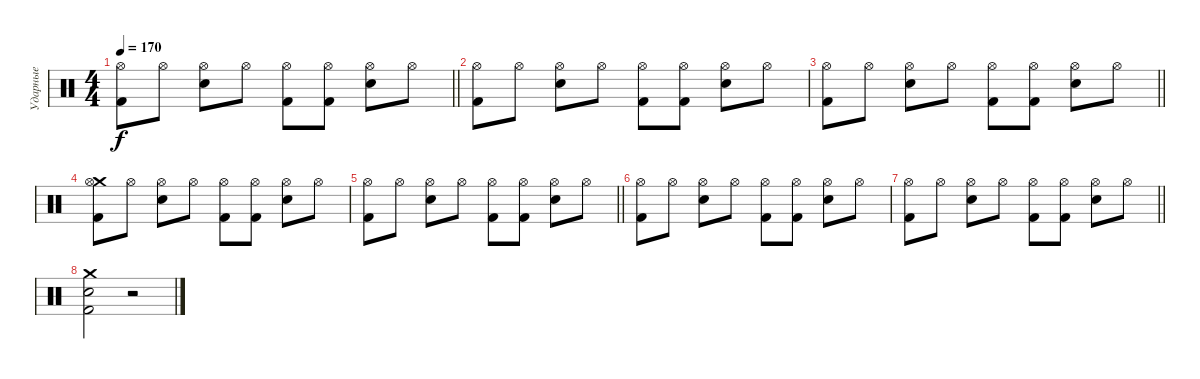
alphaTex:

\track ("Ударные" "Ударные") {instrument percussion}
\staff {score}
\articulation defaults
\ts (4 4)
\tempo 170
\clef neutral
\barLineRight lightlight
\ks c
("Hi-Hat (open)" "Kick (hit) 2").8{dy f} "Hi-Hat (open)".8 ("Hi-Hat (open)" "Electric Snare (hit)").8 "Hi-Hat (open)".8 ("Hi-Hat (open)" "Kick (hit) 2").8 ("Hi-Hat (open)" "Kick (hit) 2").8 ("Hi-Hat (open)" "Electric Snare (hit)").8 "Hi-Hat (open)".8 |
("Hi-Hat (open)" "Kick (hit) 2").8 "Hi-Hat (open)".8 ("Hi-Hat (open)" "Electric Snare (hit)").8 "Hi-Hat (open)".8 ("Hi-Hat (open)" "Kick (hit) 2").8 ("Hi-Hat (open)" "Kick (hit) 2").8 ("Hi-Hat (open)" "Electric Snare (hit)").8 "Hi-Hat (open)".8 |
\barLineRight lightlight
("Hi-Hat (open)" "Kick (hit) 2").8 "Hi-Hat (open)".8 ("Hi-Hat (open)" "Electric Snare (hit)").8 "Hi-Hat (open)".8 ("Hi-Hat (open)" "Kick (hit) 2").8 ("Hi-Hat (open)" "Kick (hit) 2").8 ("Hi-Hat (open)" "Electric Snare (hit)").8 "Hi-Hat (open)".8 |
("Crash medium (hit)" "Hi-Hat (open)" "Kick (hit) 2").8 "Hi-Hat (open)".8 ("Hi-Hat (open)" "Electric Snare (hit)").8 "Hi-Hat (open)".8 ("Hi-Hat (open)" "Kick (hit) 2").8 ("Hi-Hat (open)" "Kick (hit) 2").8 ("Hi-Hat (open)" "Electric Snare (hit)").8 "Hi-Hat (open)".8 |
\barLineRight lightlight
("Hi-Hat (open)" "Kick (hit) 2").8 "Hi-Hat (open)".8 ("Hi-Hat (open)" "Electric Snare (hit)").8 "Hi-Hat (open)".8 ("Hi-Hat (open)" "Kick (hit) 2").8 ("Hi-Hat (open)" "Kick (hit) 2").8 ("Hi-Hat (open)" "Electric Snare (hit)").8 "Hi-Hat (open)".8 |
("Hi-Hat (open)" "Kick (hit) 2").8 "Hi-Hat (open)".8 ("Hi-Hat (open)" "Electric Snare (hit)").8 "Hi-Hat (open)".8 ("Hi-Hat (open)" "Kick (hit) 2").8 ("Hi-Hat (open)" "Kick (hit) 2").8 ("Hi-Hat (open)" "Electric Snare (hit)").8 "Hi-Hat (open)".8 |
\barLineRight lightlight
("Hi-Hat (open)" "Kick (hit) 2").8 "Hi-Hat (open)".8 ("Hi-Hat (open)" "Electric Snare (hit)").8 "Hi-Hat (open)".8 ("Hi-Hat (open)" "Kick (hit) 2").8 ("Hi-Hat (open)" "Kick (hit) 2").8 ("Hi-Hat (open)" "Electric Snare (hit)").8 "Hi-Hat (open)".8 |
("Electric Snare (hit)" "Crash medium (hit)" "Kick (hit) 2").2 r.2
